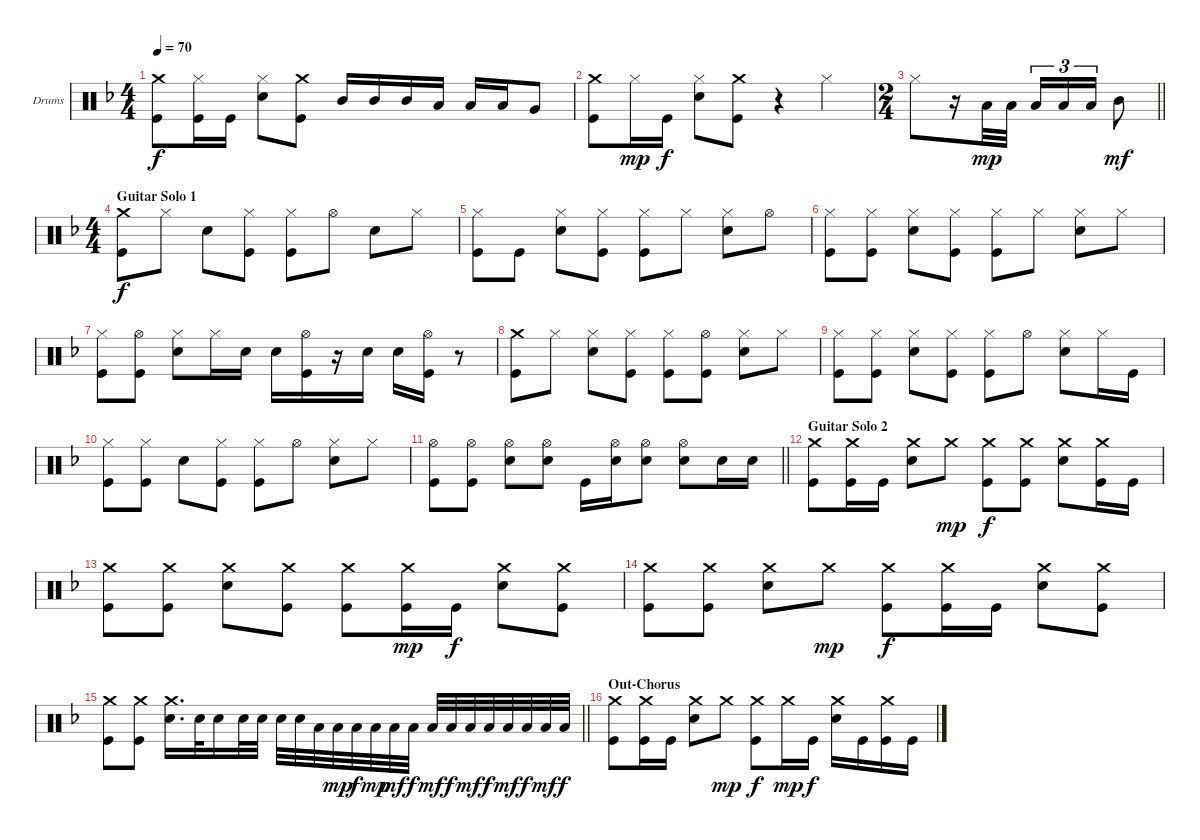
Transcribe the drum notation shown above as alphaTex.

\bracketExtendMode groupsimilarinstruments
\firstSystemTrackNameOrientation horizontal
\otherSystemsTrackNameOrientation horizontal
\track ("Drumkit" "Drums") {instrument percussion}
\staff {score}
\articulation defaults
\ts (4 4)
\tempo 70
\clef neutral
\ks dminor
("Kick (hit)" "Crash medium (hit)").8{dy f} ("Kick (hit)" "Hi-Hat (closed)").16 "Kick (hit)".16 ("Snare (hit) 2" "Hi-Hat (closed)").8 ("Kick (hit)" "Crash medium (hit)").8 "Mid Tom (hit)".16 "Mid Tom (hit)".16 "Mid Tom (hit)".16 "Low Tom (hit)".16 "Low Tom (hit)".16 "Low Tom (hit)".16 "Very Low Tom (hit)".8 |
("Kick (hit)" "Crash medium (hit)").8 "Hi-Hat (closed)".16{dy mp} "Kick (hit)".16{dy f} ("Snare (hit) 2" "Hi-Hat (closed)").8 ("Kick (hit)" "Crash medium (hit)").8 r.4 "Hi-Hat (closed)".4 |
\ts (2 4)
\beaming (8 2 2)
\barLineRight lightlight "Hi-Hat (closed)".8
r.16 "Low Tom (hit)".32{dy mp} "Low Tom (hit)".32 "Low Tom (hit)".16{tu (3 2)} "Low Tom (hit)".16{tu (3 2)} "Low Tom (hit)".16{tu (3 2)} "Mid Tom (hit)".8{dy mf} |
\ts (4 4)
\beaming (8 2 2 2 2)
\section ("" "Guitar Solo 1")
("Kick (hit)" "Crash medium (hit)").8{dy f} "Hi-Hat (closed)".8 "Snare (hit) 2".8 ("Hi-Hat (closed)" "Kick (hit)").8 ("Kick (hit)" "Hi-Hat (closed)").8 "Hi-Hat (open)".8 "Snare (hit) 2".8 "Hi-Hat (closed)".8 |
("Hi-Hat (closed)" "Kick (hit)").8 "Kick (hit)".8 ("Snare (hit) 2" "Hi-Hat (closed)").8 ("Hi-Hat (closed)" "Kick (hit)").8 ("Hi-Hat (closed)" "Kick (hit)").8 "Hi-Hat (closed)".8 ("Hi-Hat (closed)" "Snare (hit) 2").8 "Hi-Hat (open)".8 |
("Hi-Hat (closed)" "Kick (hit)").8 ("Kick (hit)" "Hi-Hat (closed)").8 ("Snare (hit) 2" "Hi-Hat (closed)").8 ("Hi-Hat (closed)" "Kick (hit)").8 ("Hi-Hat (closed)" "Kick (hit)").8 "Hi-Hat (closed)".8 ("Hi-Hat (closed)" "Snare (hit) 2").8 "Hi-Hat (closed)".8 |
("Hi-Hat (closed)" "Kick (hit)").8 ("Kick (hit)" "Hi-Hat (open)").8 ("Snare (hit) 2" "Hi-Hat (closed)").8 "Hi-Hat (closed)".16 "Snare (hit) 2".16 "Snare (hit) 2".16 ("Kick (hit)" "Hi-Hat (open)").16 r.16 "Snare (hit) 2".16 "Snare (hit) 2".16 ("Hi-Hat (open)" "Kick (hit)").16 r.8 |
("Crash medium (hit)" "Kick (hit)").8 "Hi-Hat (closed)".8 ("Snare (hit) 2" "Hi-Hat (closed)").8 ("Hi-Hat (closed)" "Kick (hit)").8 ("Hi-Hat (closed)" "Kick (hit)").8 ("Hi-Hat (open)" "Kick (hit)").8 ("Hi-Hat (closed)" "Snare (hit) 2").8 "Hi-Hat (closed)".8 |
("Hi-Hat (closed)" "Kick (hit)").8 ("Kick (hit)" "Hi-Hat (closed)").8 ("Snare (hit) 2" "Hi-Hat (closed)").8 ("Hi-Hat (closed)" "Kick (hit)").8 ("Hi-Hat (closed)" "Kick (hit)").8 "Hi-Hat (open)".8 ("Hi-Hat (closed)" "Snare (hit) 2").8 "Hi-Hat (closed)".16 "Kick (hit)".16 |
("Hi-Hat (closed)" "Kick (hit)").8 ("Kick (hit)" "Hi-Hat (closed)").8 "Snare (hit) 2".8 ("Hi-Hat (closed)" "Kick (hit)").8 ("Hi-Hat (closed)" "Kick (hit)").8 "Hi-Hat (open)".8 ("Hi-Hat (closed)" "Snare (hit) 2").8 "Hi-Hat (closed)".8 |
\barLineRight lightlight
("Kick (hit)" "Hi-Hat (open)").8 ("Kick (hit)" "Hi-Hat (open)").8 ("Snare (hit) 2" "Hi-Hat (open)").8 ("Snare (hit) 2" "Hi-Hat (open)").8 "Kick (hit)".16 ("Snare (hit) 2" "Hi-Hat (open)").16 ("Snare (hit) 2" "Hi-Hat (open)").8 ("Snare (hit) 2" "Hi-Hat (open)").8 "Snare (hit) 2".16 "Snare (hit) 2".16 |
\section ("" "Guitar Solo 2")
("Kick (hit)" "Crash medium (hit)").8 ("Kick (hit)" "Crash medium (hit)").16 "Kick (hit)".16 ("Snare (hit) 2" "Crash medium (hit)").8 "Crash medium (hit)".8{dy mp} ("Kick (hit)" "Crash medium (hit)").8{dy f} ("Kick (hit)" "Crash medium (hit)").8 ("Snare (hit) 2" "Crash medium (hit)").8 ("Kick (hit)" "Crash medium (hit)").16 "Kick (hit)".16 |
("Kick (hit)" "Crash medium (hit)").8 ("Kick (hit)" "Crash medium (hit)").8 ("Snare (hit) 2" "Crash medium (hit)").8 ("Kick (hit)" "Crash medium (hit)").8 ("Kick (hit)" "Crash medium (hit)").8 ("Crash medium (hit)" "Kick (hit)").16{dy mp} "Kick (hit)".16{dy f} ("Snare (hit) 2" "Crash medium (hit)").8 ("Kick (hit)" "Crash medium (hit)").8 |
("Kick (hit)" "Crash medium (hit)").8 ("Kick (hit)" "Crash medium (hit)").8 ("Snare (hit) 2" "Crash medium (hit)").8 "Crash medium (hit)".8{dy mp} ("Kick (hit)" "Crash medium (hit)").8{dy f} ("Kick (hit)" "Crash medium (hit)").16 "Kick (hit)".16 ("Snare (hit) 2" "Crash medium (hit)").8 ("Kick (hit)" "Crash medium (hit)").8 |
\barLineRight lightlight
("Kick (hit)" "Crash medium (hit)").8 ("Kick (hit)" "Crash medium (hit)").8 ("Snare (hit) 2" "Crash medium (hit)").16{d} "Snare (hit) 2".32 "Snare (hit) 2".16 "Snare (hit) 2".32 "Snare (hit) 2".32 "Snare (hit) 2".32 "Snare (hit) 2".32 "Low Tom (hit)".32 "Low Tom (hit)".32{dy mp} "Low Tom (hit)".32{dy f} "Low Tom (hit)".32{dy mp} "Low Tom (hit)".32{dy mf} "Low Tom (hit)".32{dy f} "Low Tom (hit)".32{dy mf} "Low Tom (hit)".32{dy f} "Low Tom (hit)".32{dy mf} "Low Tom (hit)".32{dy f} "Low Tom (hit)".32{dy mf} "Low Tom (hit)".32{dy f} "Low Tom (hit)".32{dy mf} "Low Tom (hit)".32{dy f} |
\section ("" "Out-Chorus")
("Kick (hit)" "Crash medium (hit)").8 ("Kick (hit)" "Crash medium (hit)").16 "Kick (hit)".16 ("Snare (hit) 2" "Crash medium (hit)").8 "Crash medium (hit)".8{dy mp} ("Kick (hit)" "Crash medium (hit)").8{dy f} "Crash medium (hit)".16{dy mp} "Kick (hit)".16{dy f} ("Snare (hit) 2" "Crash medium (hit)").16 "Kick (hit)".16 ("Kick (hit)" "Crash medium (hit)").16 "Kick (hit)".16
